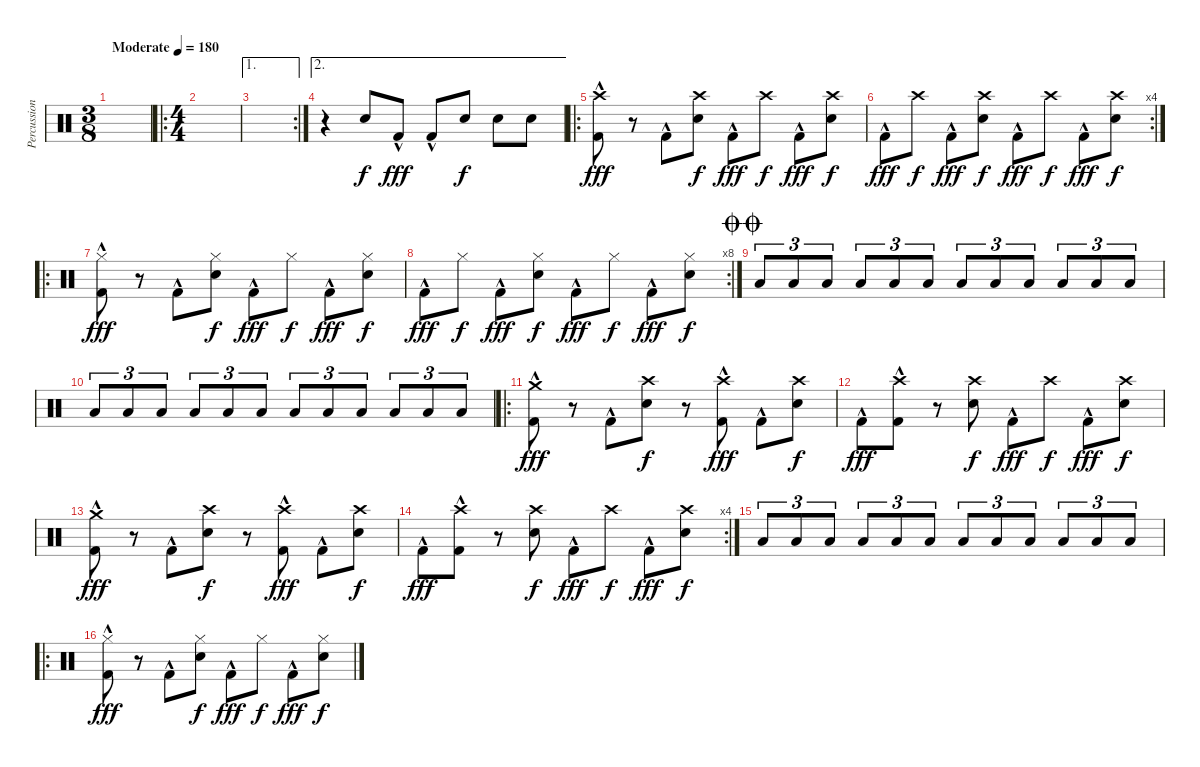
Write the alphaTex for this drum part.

\track ("Percussion" "Percussion") {instrument percussion}
\staff {score}
\articulation defaults
\ts (3 8)
\tempo (180 "Moderate")
\clef neutral
\ks c
|
\ro
\ts (4 4)
|
\ae 1
\rc 2
|
\ae 2
r.4 "Electric Snare (hit)".8 "Kick (hit) 2"{hac}.8{dy fff} "Kick (hit) 2"{hac}.8 "Electric Snare (hit)".8{dy f} "Electric Snare (hit)".8 "Electric Snare (hit)".8 |
\ro
("Crash high (hit)" "Kick (hit) 2"{hac}).8{dy fff} r.8 "Kick (hit) 2"{hac}.8 ("Crash high (hit)" "Electric Snare (hit)").8{dy f} "Kick (hit) 2"{hac}.8{dy fff} "Crash high (hit)".8{dy f} "Kick (hit) 2"{hac}.8{dy fff} ("Crash high (hit)" "Electric Snare (hit)").8{dy f} |
\rc 4 "Kick (hit) 2"{hac}.8{dy fff} "Crash high (hit)".8{dy f} "Kick (hit) 2"{hac}.8{dy fff}
("Crash high (hit)" "Electric Snare (hit)").8{dy f} "Kick (hit) 2"{hac}.8{dy fff} "Crash high (hit)".8{dy f} "Kick (hit) 2"{hac}.8{dy fff} ("Crash high (hit)" "Electric Snare (hit)").8{dy f} |
\ro
("Hi-Hat (closed)" "Kick (hit) 2"{hac}).8{dy fff} r.8 "Kick (hit) 2"{hac}.8 ("Hi-Hat (closed)" "Electric Snare (hit)").8{dy f} "Kick (hit) 2"{hac}.8{dy fff} "Hi-Hat (closed)".8{dy f} "Kick (hit) 2"{hac}.8{dy fff} ("Hi-Hat (closed)" "Electric Snare (hit)").8{dy f} |
\rc 8 "Kick (hit) 2"{hac}.8{dy fff} "Hi-Hat (closed)".8{dy f} "Kick (hit) 2"{hac}.8{dy fff}
("Hi-Hat (closed)" "Electric Snare (hit)").8{dy f} "Kick (hit) 2"{hac}.8{dy fff} "Hi-Hat (closed)".8{dy f} "Kick (hit) 2"{hac}.8{dy fff} ("Hi-Hat (closed)" "Electric Snare (hit)").8{dy f} |
\jump doublecoda "Low Tom (hit)".8{tu (3 2) volume 6} "Low Tom (hit)".8{tu (3 2)} "Low Tom (hit)".8{tu (3 2)} "Low Tom (hit)".8{tu (3 2) volume 16} "Low Tom (hit)".8{tu (3 2)} "Low Tom (hit)".8{tu (3 2)} "Low Tom (hit)".8{tu (3 2)} "Low Tom (hit)".8{tu (3 2)} "Low Tom (hit)".8{tu (3 2)} "Low Tom (hit)".8{tu (3 2)} "Low Tom (hit)".8{tu (3 2)} "Low Tom (hit)".8{tu (3 2)}
|
"Low Tom (hit)".8{tu (3 2)} "Low Tom (hit)".8{tu (3 2)} "Low Tom (hit)".8{tu (3 2)} "Low Tom (hit)".8{tu (3 2)} "Low Tom (hit)".8{tu (3 2)} "Low Tom (hit)".8{tu (3 2)} "Low Tom (hit)".8{tu (3 2)} "Low Tom (hit)".8{tu (3 2)} "Low Tom (hit)".8{tu (3 2)} "Low Tom (hit)".8{tu (3 2)} "Low Tom (hit)".8{tu (3 2)} "Low Tom (hit)".8{tu (3 2)} |
\ro
("Crash medium (hit)" "Kick (hit) 2"{hac}).8{dy fff} r.8 "Kick (hit) 2"{hac}.8 ("Crash high (hit)" "Electric Snare (hit)").8{dy f} r.8 ("Crash high (hit)" "Kick (hit) 2"{hac}).8{dy fff} "Kick (hit) 2"{hac}.8 ("Crash high (hit)" "Electric Snare (hit)").8{dy f} |
"Kick (hit) 2"{hac}.8{dy fff} ("Crash high (hit)" "Kick (hit) 2"{hac}).8 r.8 ("Crash high (hit)" "Electric Snare (hit)").8{dy f} "Kick (hit) 2"{hac}.8{dy fff} "Crash high (hit)".8{dy f} "Kick (hit) 2"{hac}.8{dy fff} ("Crash high (hit)" "Electric Snare (hit)").8{dy f} |
("Crash medium (hit)" "Kick (hit) 2"{hac}).8{dy fff} r.8 "Kick (hit) 2"{hac}.8 ("Crash high (hit)" "Electric Snare (hit)").8{dy f} r.8 ("Crash high (hit)" "Kick (hit) 2"{hac}).8{dy fff} "Kick (hit) 2"{hac}.8 ("Crash high (hit)" "Electric Snare (hit)").8{dy f} |
\rc 4 "Kick (hit) 2"{hac}.8{dy fff}
("Crash high (hit)" "Kick (hit) 2"{hac}).8 r.8 ("Crash high (hit)" "Electric Snare (hit)").8{dy f} "Kick (hit) 2"{hac}.8{dy fff} "Crash high (hit)".8{dy f} "Kick (hit) 2"{hac}.8{dy fff} ("Crash high (hit)" "Electric Snare (hit)").8{dy f} |
"Low Tom (hit)".8{tu (3 2) volume 6} "Low Tom (hit)".8{tu (3 2)} "Low Tom (hit)".8{tu (3 2)} "Low Tom (hit)".8{tu (3 2) volume 16} "Low Tom (hit)".8{tu (3 2)} "Low Tom (hit)".8{tu (3 2)} "Low Tom (hit)".8{tu (3 2)} "Low Tom (hit)".8{tu (3 2)} "Low Tom (hit)".8{tu (3 2)} "Low Tom (hit)".8{tu (3 2)} "Low Tom (hit)".8{tu (3 2)} "Low Tom (hit)".8{tu (3 2)} |
\ro
("Hi-Hat (closed)" "Kick (hit) 2"{hac}).8{dy fff} r.8 "Kick (hit) 2"{hac}.8 ("Hi-Hat (closed)" "Electric Snare (hit)").8{dy f} "Kick (hit) 2"{hac}.8{dy fff} "Hi-Hat (closed)".8{dy f} "Kick (hit) 2"{hac}.8{dy fff} ("Hi-Hat (closed)" "Electric Snare (hit)").8{dy f}
